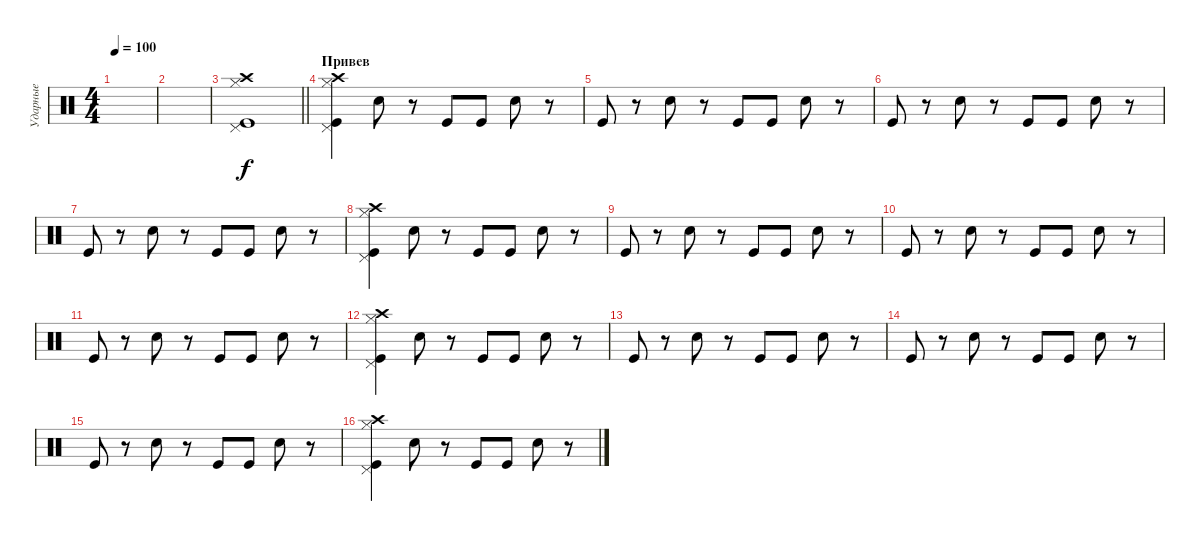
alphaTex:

\track ("Ударные" "Ударные") {instrument percussion}
\staff {score}
\articulation defaults
\ts (4 4)
\tempo 100
\clef neutral
\ks c
|
|
\barLineRight lightlight
("Crash high (hit)" "Hi-Hat (closed)" "Pedal Hi-Hat (hit)" "Kick (hit)").1 |
\section ("" "Привев")
("Crash high (hit)" "Hi-Hat (closed)" "Pedal Hi-Hat (hit)" "Kick (hit)").4 "Electric Snare (hit)".8 r.8 "Kick (hit)".8 "Kick (hit)".8 "Electric Snare (hit)".8 r.8 |
"Kick (hit)".8 r.8 "Electric Snare (hit)".8 r.8 "Kick (hit)".8 "Kick (hit)".8 "Electric Snare (hit)".8 r.8 |
"Kick (hit)".8 r.8 "Electric Snare (hit)".8 r.8 "Kick (hit)".8 "Kick (hit)".8 "Electric Snare (hit)".8 r.8 |
"Kick (hit)".8 r.8 "Electric Snare (hit)".8 r.8 "Kick (hit)".8 "Kick (hit)".8 "Electric Snare (hit)".8 r.8 |
("Crash high (hit)" "Hi-Hat (closed)" "Pedal Hi-Hat (hit)" "Kick (hit)").4 "Electric Snare (hit)".8 r.8 "Kick (hit)".8 "Kick (hit)".8 "Electric Snare (hit)".8 r.8 |
"Kick (hit)".8 r.8 "Electric Snare (hit)".8 r.8 "Kick (hit)".8 "Kick (hit)".8 "Electric Snare (hit)".8 r.8 |
"Kick (hit)".8 r.8 "Electric Snare (hit)".8 r.8 "Kick (hit)".8 "Kick (hit)".8 "Electric Snare (hit)".8 r.8 |
"Kick (hit)".8 r.8 "Electric Snare (hit)".8 r.8 "Kick (hit)".8 "Kick (hit)".8 "Electric Snare (hit)".8 r.8 |
("Crash high (hit)" "Hi-Hat (closed)" "Pedal Hi-Hat (hit)" "Kick (hit)").4 "Electric Snare (hit)".8 r.8 "Kick (hit)".8 "Kick (hit)".8 "Electric Snare (hit)".8 r.8 |
"Kick (hit)".8 r.8 "Electric Snare (hit)".8 r.8 "Kick (hit)".8 "Kick (hit)".8 "Electric Snare (hit)".8 r.8 |
"Kick (hit)".8 r.8 "Electric Snare (hit)".8 r.8 "Kick (hit)".8 "Kick (hit)".8 "Electric Snare (hit)".8 r.8 |
"Kick (hit)".8 r.8 "Electric Snare (hit)".8 r.8 "Kick (hit)".8 "Kick (hit)".8 "Electric Snare (hit)".8 r.8 |
("Crash high (hit)" "Hi-Hat (closed)" "Pedal Hi-Hat (hit)" "Kick (hit)").4 "Electric Snare (hit)".8 r.8 "Kick (hit)".8 "Kick (hit)".8 "Electric Snare (hit)".8 r.8
